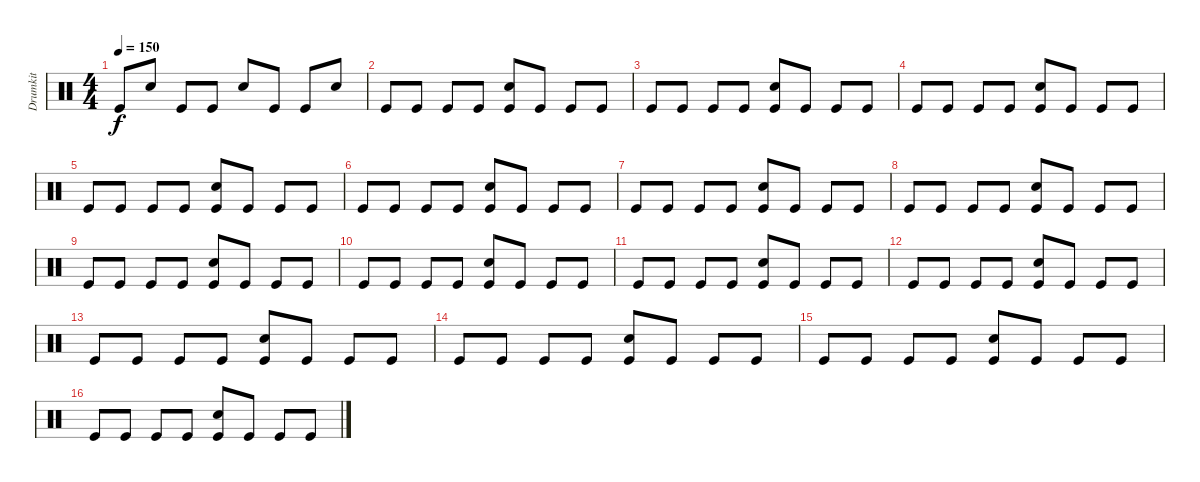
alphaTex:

\track ("Drumkit" "Drumkit") {instrument percussion}
\staff {score}
\articulation defaults
\ts (4 4)
\tempo 150
\clef neutral
\ks c "Kick (hit)".8{dy f} "Snare (hit) 2".8 "Kick (hit)".8 "Kick (hit)".8 "Snare (hit) 2".8 "Kick (hit)".8 "Kick (hit)".8 "Snare (hit) 2".8
|
"Kick (hit)".8 "Kick (hit)".8 "Kick (hit)".8 "Kick (hit)".8 ("Kick (hit)" "Snare (hit) 2").8 "Kick (hit)".8 "Kick (hit)".8 "Kick (hit)".8 |
"Kick (hit)".8 "Kick (hit)".8 "Kick (hit)".8 "Kick (hit)".8 ("Kick (hit)" "Snare (hit) 2").8 "Kick (hit)".8 "Kick (hit)".8 "Kick (hit)".8 |
"Kick (hit)".8 "Kick (hit)".8 "Kick (hit)".8 "Kick (hit)".8 ("Kick (hit)" "Snare (hit) 2").8 "Kick (hit)".8 "Kick (hit)".8 "Kick (hit)".8 |
"Kick (hit)".8 "Kick (hit)".8 "Kick (hit)".8 "Kick (hit)".8 ("Kick (hit)" "Snare (hit) 2").8 "Kick (hit)".8 "Kick (hit)".8 "Kick (hit)".8 |
"Kick (hit)".8 "Kick (hit)".8 "Kick (hit)".8 "Kick (hit)".8 ("Kick (hit)" "Snare (hit) 2").8 "Kick (hit)".8 "Kick (hit)".8 "Kick (hit)".8 |
"Kick (hit)".8 "Kick (hit)".8 "Kick (hit)".8 "Kick (hit)".8 ("Kick (hit)" "Snare (hit) 2").8 "Kick (hit)".8 "Kick (hit)".8 "Kick (hit)".8 |
"Kick (hit)".8 "Kick (hit)".8 "Kick (hit)".8 "Kick (hit)".8 ("Kick (hit)" "Snare (hit) 2").8 "Kick (hit)".8 "Kick (hit)".8 "Kick (hit)".8 |
"Kick (hit)".8 "Kick (hit)".8 "Kick (hit)".8 "Kick (hit)".8 ("Kick (hit)" "Snare (hit) 2").8 "Kick (hit)".8 "Kick (hit)".8 "Kick (hit)".8 |
"Kick (hit)".8 "Kick (hit)".8 "Kick (hit)".8 "Kick (hit)".8 ("Kick (hit)" "Snare (hit) 2").8 "Kick (hit)".8 "Kick (hit)".8 "Kick (hit)".8 |
"Kick (hit)".8 "Kick (hit)".8 "Kick (hit)".8 "Kick (hit)".8 ("Kick (hit)" "Snare (hit) 2").8 "Kick (hit)".8 "Kick (hit)".8 "Kick (hit)".8 |
"Kick (hit)".8 "Kick (hit)".8 "Kick (hit)".8 "Kick (hit)".8 ("Kick (hit)" "Snare (hit) 2").8 "Kick (hit)".8 "Kick (hit)".8 "Kick (hit)".8 |
"Kick (hit)".8 "Kick (hit)".8 "Kick (hit)".8 "Kick (hit)".8 ("Kick (hit)" "Snare (hit) 2").8 "Kick (hit)".8 "Kick (hit)".8 "Kick (hit)".8 |
"Kick (hit)".8 "Kick (hit)".8 "Kick (hit)".8 "Kick (hit)".8 ("Kick (hit)" "Snare (hit) 2").8 "Kick (hit)".8 "Kick (hit)".8 "Kick (hit)".8 |
"Kick (hit)".8 "Kick (hit)".8 "Kick (hit)".8 "Kick (hit)".8 ("Kick (hit)" "Snare (hit) 2").8 "Kick (hit)".8 "Kick (hit)".8 "Kick (hit)".8 |
"Kick (hit)".8 "Kick (hit)".8 "Kick (hit)".8 "Kick (hit)".8 ("Kick (hit)" "Snare (hit) 2").8 "Kick (hit)".8 "Kick (hit)".8 "Kick (hit)".8
